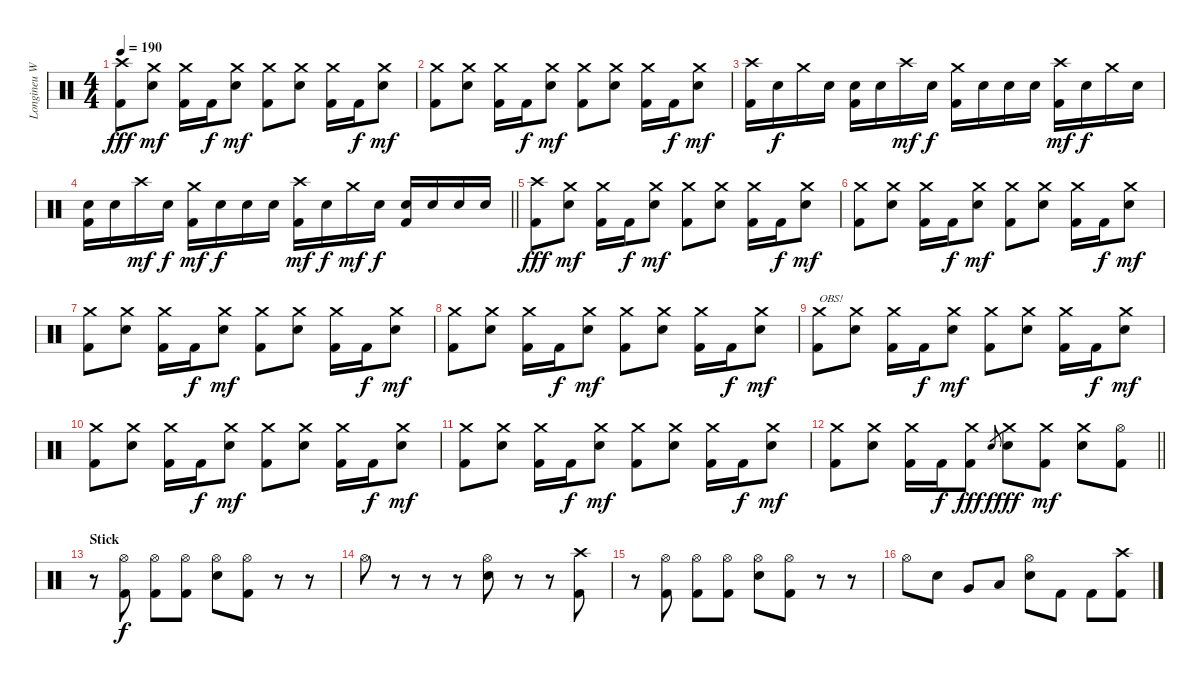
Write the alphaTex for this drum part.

\track ("Longineu W. Parsons III" "Longineu W") {instrument percussion}
\staff {score}
\articulation defaults
\ts (4 4)
\tempo 190
\clef neutral
\ks c
("Crash high (hit)" "Kick (hit) 2").8{dy fff} ("Crash medium (hit)" "Electric Snare (hit)").8{dy mf} ("Crash medium (hit)" "Kick (hit) 2").16 "Kick (hit) 2".16{dy f} ("Crash medium (hit)" "Electric Snare (hit)").8{dy mf} ("Crash medium (hit)" "Kick (hit) 2").8 ("Crash medium (hit)" "Electric Snare (hit)").8 ("Crash medium (hit)" "Kick (hit) 2").16 "Kick (hit) 2".16{dy f} ("Crash medium (hit)" "Electric Snare (hit)").8{dy mf} |
("Crash medium (hit)" "Kick (hit) 2").8 ("Crash medium (hit)" "Electric Snare (hit)").8 ("Crash medium (hit)" "Kick (hit) 2").16 "Kick (hit) 2".16{dy f} ("Crash medium (hit)" "Electric Snare (hit)").8{dy mf} ("Crash medium (hit)" "Kick (hit) 2").8 ("Crash medium (hit)" "Electric Snare (hit)").8 ("Crash medium (hit)" "Kick (hit) 2").16 "Kick (hit) 2".16{dy f} ("Crash medium (hit)" "Electric Snare (hit)").8{dy mf} |
("Crash high (hit)" "Kick (hit) 2").16 "Electric Snare (hit)".16{dy f} "Crash medium (hit)".16 "Electric Snare (hit)".16 ("Electric Snare (hit)" "Kick (hit) 2").16 "Electric Snare (hit)".16 "Crash high (hit)".16{dy mf} "Electric Snare (hit)".16{dy f} ("Crash medium (hit)" "Kick (hit) 2").16 "Electric Snare (hit)".16 "Electric Snare (hit)".16 "Electric Snare (hit)".16 ("Crash high (hit)" "Kick (hit) 2").16{dy mf} "Electric Snare (hit)".16{dy f} "Crash medium (hit)".16 "Electric Snare (hit)".16 |
\barLineRight lightlight
("Electric Snare (hit)" "Kick (hit) 2").16 "Electric Snare (hit)".16 "Crash high (hit)".16{dy mf} "Electric Snare (hit)".16{dy f} ("Crash medium (hit)" "Kick (hit) 2").16{dy mf} "Electric Snare (hit)".16{dy f} "Electric Snare (hit)".16 "Electric Snare (hit)".16 ("Crash high (hit)" "Kick (hit) 2").16{dy mf} "Electric Snare (hit)".16{dy f} "Crash medium (hit)".16{dy mf} "Electric Snare (hit)".16{dy f} ("Electric Snare (hit)" "Kick (hit) 2").16 "Electric Snare (hit)".16 "Electric Snare (hit)".16 "Electric Snare (hit)".16 |
("Crash high (hit)" "Kick (hit) 2").8{dy fff} ("Crash medium (hit)" "Electric Snare (hit)").8{dy mf} ("Crash medium (hit)" "Kick (hit) 2").16 "Kick (hit) 2".16{dy f} ("Crash medium (hit)" "Electric Snare (hit)").8{dy mf} ("Crash medium (hit)" "Kick (hit) 2").8 ("Crash medium (hit)" "Electric Snare (hit)").8 ("Crash medium (hit)" "Kick (hit) 2").16 "Kick (hit) 2".16{dy f} ("Crash medium (hit)" "Electric Snare (hit)").8{dy mf} |
("Crash medium (hit)" "Kick (hit) 2").8 ("Crash medium (hit)" "Electric Snare (hit)").8 ("Crash medium (hit)" "Kick (hit) 2").16 "Kick (hit) 2".16{dy f} ("Crash medium (hit)" "Electric Snare (hit)").8{dy mf} ("Crash medium (hit)" "Kick (hit) 2").8 ("Crash medium (hit)" "Electric Snare (hit)").8 ("Crash medium (hit)" "Kick (hit) 2").16 "Kick (hit) 2".16{dy f} ("Crash medium (hit)" "Electric Snare (hit)").8{dy mf} |
("Crash medium (hit)" "Kick (hit) 2").8 ("Crash medium (hit)" "Electric Snare (hit)").8 ("Crash medium (hit)" "Kick (hit) 2").16 "Kick (hit) 2".16{dy f} ("Crash medium (hit)" "Electric Snare (hit)").8{dy mf} ("Crash medium (hit)" "Kick (hit) 2").8 ("Crash medium (hit)" "Electric Snare (hit)").8 ("Crash medium (hit)" "Kick (hit) 2").16 "Kick (hit) 2".16{dy f} ("Crash medium (hit)" "Electric Snare (hit)").8{dy mf} |
("Crash medium (hit)" "Kick (hit) 2").8 ("Crash medium (hit)" "Electric Snare (hit)").8 ("Crash medium (hit)" "Kick (hit) 2").16 "Kick (hit) 2".16{dy f} ("Crash medium (hit)" "Electric Snare (hit)").8{dy mf} ("Crash medium (hit)" "Kick (hit) 2").8 ("Crash medium (hit)" "Electric Snare (hit)").8 ("Crash medium (hit)" "Kick (hit) 2").16 "Kick (hit) 2".16{dy f} ("Crash medium (hit)" "Electric Snare (hit)").8{dy mf} |
("Crash medium (hit)" "Kick (hit) 2").8{txt "OBS!"} ("Crash medium (hit)" "Electric Snare (hit)").8 ("Crash medium (hit)" "Kick (hit) 2").16 "Kick (hit) 2".16{dy f} ("Crash medium (hit)" "Electric Snare (hit)").8{dy mf} ("Crash medium (hit)" "Kick (hit) 2").8 ("Crash medium (hit)" "Electric Snare (hit)").8 ("Crash medium (hit)" "Kick (hit) 2").16 "Kick (hit) 2".16{dy f} ("Crash medium (hit)" "Electric Snare (hit)").8{dy mf} |
("Crash medium (hit)" "Kick (hit) 2").8 ("Crash medium (hit)" "Electric Snare (hit)").8 ("Crash medium (hit)" "Kick (hit) 2").16 "Kick (hit) 2".16{dy f} ("Crash medium (hit)" "Electric Snare (hit)").8{dy mf} ("Crash medium (hit)" "Kick (hit) 2").8 ("Crash medium (hit)" "Electric Snare (hit)").8 ("Crash medium (hit)" "Kick (hit) 2").16 "Kick (hit) 2".16{dy f} ("Crash medium (hit)" "Electric Snare (hit)").8{dy mf} |
("Crash medium (hit)" "Kick (hit) 2").8 ("Crash medium (hit)" "Electric Snare (hit)").8 ("Crash medium (hit)" "Kick (hit) 2").16 "Kick (hit) 2".16{dy f} ("Crash medium (hit)" "Electric Snare (hit)").8{dy mf} ("Crash medium (hit)" "Kick (hit) 2").8 ("Crash medium (hit)" "Electric Snare (hit)").8 ("Crash medium (hit)" "Kick (hit) 2").16 "Kick (hit) 2".16{dy f} ("Crash medium (hit)" "Electric Snare (hit)").8{dy mf} |
\barLineRight lightlight
("Crash medium (hit)" "Kick (hit) 2").8 ("Crash medium (hit)" "Electric Snare (hit)").8 ("Crash medium (hit)" "Kick (hit) 2").16 "Kick (hit) 2".16{dy f} ("Crash medium (hit)" "Kick (hit) 2").8{dy fff} "Electric Snare (hit)".8{gr dy f} ("Crash medium (hit)" "Electric Snare (hit)").8{dy fff} ("Crash medium (hit)" "Kick (hit) 2").8{dy mf} ("Crash medium (hit)" "Electric Snare (hit)").8 ("Hi-Hat (open)" "Kick (hit) 2").8 |
\section ("" "Stick")
r.8 ("Hi-Hat (open)" "Kick (hit) 2").8{dy f} ("Hi-Hat (open)" "Kick (hit) 2").8 ("Hi-Hat (open)" "Kick (hit) 2").8 ("Hi-Hat (open)" "Electric Snare (hit)").8 ("Hi-Hat (open)" "Kick (hit) 2").8 r.8 r.8 |
"Hi-Hat (open)".8 r.8 r.8 r.8 ("Hi-Hat (open)" "Electric Snare (hit)").8 r.8 r.8 ("Crash high (hit)" "Kick (hit) 2").8 |
r.8 ("Hi-Hat (open)" "Kick (hit) 2").8 ("Hi-Hat (open)" "Kick (hit) 2").8 ("Hi-Hat (open)" "Kick (hit) 2").8 ("Hi-Hat (open)" "Electric Snare (hit)").8 ("Hi-Hat (open)" "Kick (hit) 2").8 r.8 r.8 |
"Hi-Hat (open)".8 "Electric Snare (hit)".8 "Very Low Tom (hit)".8 "Low Floor Tom (hit)".8 ("Hi-Hat (open)" "Electric Snare (hit)").8 "Kick (hit) 2".8 "Kick (hit) 2".8 ("Crash high (hit)" "Kick (hit) 2").8
